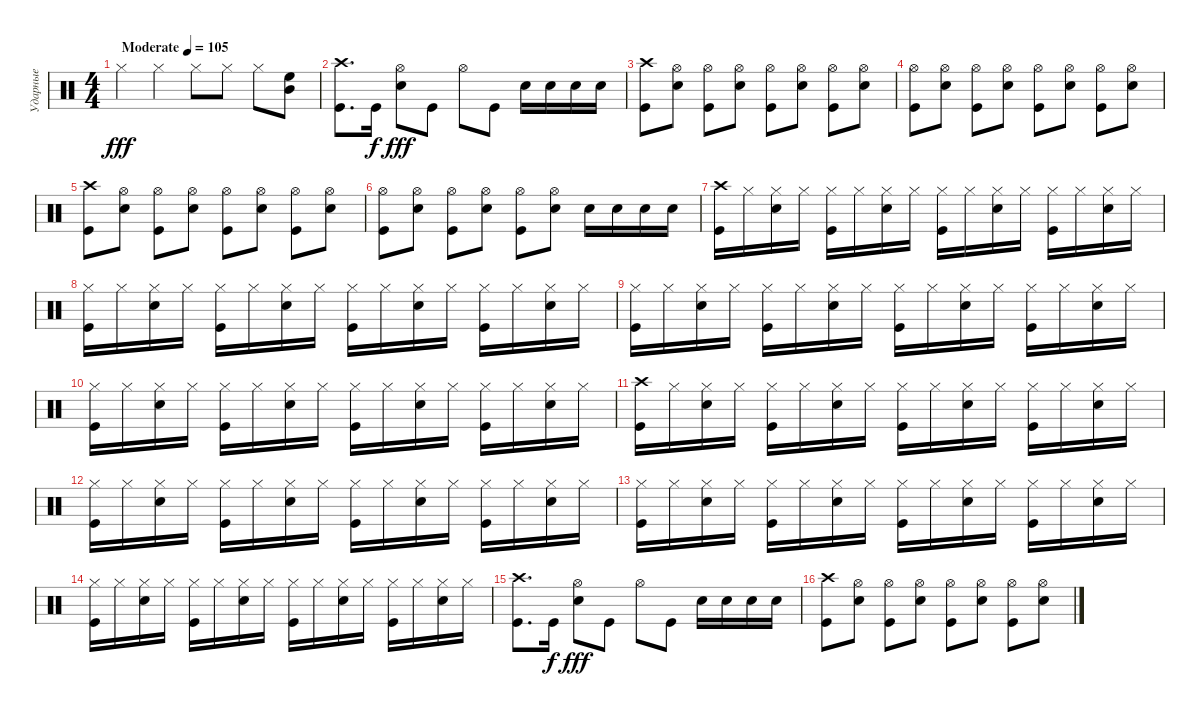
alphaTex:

\track ("Ударные" "Ударные") {instrument percussion}
\staff {score}
\articulation defaults
\ts (4 4)
\tempo (105 "Moderate")
\clef neutral
\ks c "Hi-Hat (closed)".4{dy fff} "Hi-Hat (closed)".4 "Hi-Hat (closed)".8 "Hi-Hat (closed)".8 "Hi-Hat (closed)".8
("High Floor Tom (hit)" "Mid Tom (hit)").8 |
("Crash high (hit)" "Kick (hit)").8{d} "Kick (hit)".16{dy f} ("Hi-Hat (open)" "Electric Snare (hit)").8{dy fff} "Kick (hit)".8 "Hi-Hat (open)".8 "Kick (hit)".8 "Electric Snare (hit)".16 "Electric Snare (hit)".16 "Electric Snare (hit)".16 "Electric Snare (hit)".16 |
("Crash high (hit)" "Kick (hit)").8 ("Electric Snare (hit)" "Hi-Hat (open)").8 ("Hi-Hat (open)" "Kick (hit)").8 ("Hi-Hat (open)" "Electric Snare (hit)").8 ("Kick (hit)" "Hi-Hat (open)").8 ("Electric Snare (hit)" "Hi-Hat (open)").8 ("Kick (hit)" "Hi-Hat (open)").8 ("Electric Snare (hit)" "Hi-Hat (open)").8 |
("Hi-Hat (open)" "Kick (hit)").8 ("Electric Snare (hit)" "Hi-Hat (open)").8 ("Hi-Hat (open)" "Kick (hit)").8 ("Hi-Hat (open)" "Electric Snare (hit)").8 ("Kick (hit)" "Hi-Hat (open)").8 ("Electric Snare (hit)" "Hi-Hat (open)").8 ("Kick (hit)" "Hi-Hat (open)").8 ("Electric Snare (hit)" "Hi-Hat (open)").8 |
("Crash high (hit)" "Kick (hit)").8 ("Electric Snare (hit)" "Hi-Hat (open)").8 ("Hi-Hat (open)" "Kick (hit)").8 ("Hi-Hat (open)" "Electric Snare (hit)").8 ("Kick (hit)" "Hi-Hat (open)").8 ("Electric Snare (hit)" "Hi-Hat (open)").8 ("Kick (hit)" "Hi-Hat (open)").8 ("Electric Snare (hit)" "Hi-Hat (open)").8 |
("Hi-Hat (open)" "Kick (hit)").8 ("Electric Snare (hit)" "Hi-Hat (open)").8 ("Hi-Hat (open)" "Kick (hit)").8 ("Hi-Hat (open)" "Electric Snare (hit)").8 ("Kick (hit)" "Hi-Hat (open)").8 ("Electric Snare (hit)" "Hi-Hat (open)").8 "Electric Snare (hit)".16 "Electric Snare (hit)".16 "Electric Snare (hit)".16 "Electric Snare (hit)".16 |
("Kick (hit)" "Crash high (hit)").16 "Hi-Hat (closed)".16 ("Hi-Hat (closed)" "Electric Snare (hit)").16 "Hi-Hat (closed)".16 ("Hi-Hat (closed)" "Kick (hit)").16 "Hi-Hat (closed)".16 ("Hi-Hat (closed)" "Electric Snare (hit)").16 "Hi-Hat (closed)".16 ("Hi-Hat (closed)" "Kick (hit)").16 "Hi-Hat (closed)".16 ("Hi-Hat (closed)" "Electric Snare (hit)").16 "Hi-Hat (closed)".16 ("Hi-Hat (closed)" "Kick (hit)").16 "Hi-Hat (closed)".16 ("Hi-Hat (closed)" "Electric Snare (hit)").16 "Hi-Hat (closed)".16 |
("Kick (hit)" "Hi-Hat (closed)").16 "Hi-Hat (closed)".16 ("Hi-Hat (closed)" "Electric Snare (hit)").16 "Hi-Hat (closed)".16 ("Hi-Hat (closed)" "Kick (hit)").16 "Hi-Hat (closed)".16 ("Hi-Hat (closed)" "Electric Snare (hit)").16 "Hi-Hat (closed)".16 ("Hi-Hat (closed)" "Kick (hit)").16 "Hi-Hat (closed)".16 ("Hi-Hat (closed)" "Electric Snare (hit)").16 "Hi-Hat (closed)".16 ("Hi-Hat (closed)" "Kick (hit)").16 "Hi-Hat (closed)".16 ("Hi-Hat (closed)" "Electric Snare (hit)").16 "Hi-Hat (closed)".16 |
("Kick (hit)" "Hi-Hat (closed)").16 "Hi-Hat (closed)".16 ("Hi-Hat (closed)" "Electric Snare (hit)").16 "Hi-Hat (closed)".16 ("Hi-Hat (closed)" "Kick (hit)").16 "Hi-Hat (closed)".16 ("Hi-Hat (closed)" "Electric Snare (hit)").16 "Hi-Hat (closed)".16 ("Hi-Hat (closed)" "Kick (hit)").16 "Hi-Hat (closed)".16 ("Hi-Hat (closed)" "Electric Snare (hit)").16 "Hi-Hat (closed)".16 ("Hi-Hat (closed)" "Kick (hit)").16 "Hi-Hat (closed)".16 ("Hi-Hat (closed)" "Electric Snare (hit)").16 "Hi-Hat (closed)".16 |
("Kick (hit)" "Hi-Hat (closed)").16 "Hi-Hat (closed)".16 ("Hi-Hat (closed)" "Electric Snare (hit)").16 "Hi-Hat (closed)".16 ("Hi-Hat (closed)" "Kick (hit)").16 "Hi-Hat (closed)".16 ("Hi-Hat (closed)" "Electric Snare (hit)").16 "Hi-Hat (closed)".16 ("Hi-Hat (closed)" "Kick (hit)").16 "Hi-Hat (closed)".16 ("Hi-Hat (closed)" "Electric Snare (hit)").16 "Hi-Hat (closed)".16 ("Hi-Hat (closed)" "Kick (hit)").16 "Hi-Hat (closed)".16 ("Hi-Hat (closed)" "Electric Snare (hit)").16 "Hi-Hat (closed)".16 |
("Kick (hit)" "Crash high (hit)").16 "Hi-Hat (closed)".16 ("Hi-Hat (closed)" "Electric Snare (hit)").16 "Hi-Hat (closed)".16 ("Hi-Hat (closed)" "Kick (hit)").16 "Hi-Hat (closed)".16 ("Hi-Hat (closed)" "Electric Snare (hit)").16 "Hi-Hat (closed)".16 ("Hi-Hat (closed)" "Kick (hit)").16 "Hi-Hat (closed)".16 ("Hi-Hat (closed)" "Electric Snare (hit)").16 "Hi-Hat (closed)".16 ("Hi-Hat (closed)" "Kick (hit)").16 "Hi-Hat (closed)".16 ("Hi-Hat (closed)" "Electric Snare (hit)").16 "Hi-Hat (closed)".16 |
("Kick (hit)" "Hi-Hat (closed)").16 "Hi-Hat (closed)".16 ("Hi-Hat (closed)" "Electric Snare (hit)").16 "Hi-Hat (closed)".16 ("Hi-Hat (closed)" "Kick (hit)").16 "Hi-Hat (closed)".16 ("Hi-Hat (closed)" "Electric Snare (hit)").16 "Hi-Hat (closed)".16 ("Hi-Hat (closed)" "Kick (hit)").16 "Hi-Hat (closed)".16 ("Hi-Hat (closed)" "Electric Snare (hit)").16 "Hi-Hat (closed)".16 ("Hi-Hat (closed)" "Kick (hit)").16 "Hi-Hat (closed)".16 ("Hi-Hat (closed)" "Electric Snare (hit)").16 "Hi-Hat (closed)".16 |
("Kick (hit)" "Hi-Hat (closed)").16 "Hi-Hat (closed)".16 ("Hi-Hat (closed)" "Electric Snare (hit)").16 "Hi-Hat (closed)".16 ("Hi-Hat (closed)" "Kick (hit)").16 "Hi-Hat (closed)".16 ("Hi-Hat (closed)" "Electric Snare (hit)").16 "Hi-Hat (closed)".16 ("Hi-Hat (closed)" "Kick (hit)").16 "Hi-Hat (closed)".16 ("Hi-Hat (closed)" "Electric Snare (hit)").16 "Hi-Hat (closed)".16 ("Hi-Hat (closed)" "Kick (hit)").16 "Hi-Hat (closed)".16 ("Hi-Hat (closed)" "Electric Snare (hit)").16 "Hi-Hat (closed)".16 |
("Kick (hit)" "Hi-Hat (closed)").16 "Hi-Hat (closed)".16 ("Hi-Hat (closed)" "Electric Snare (hit)").16 "Hi-Hat (closed)".16 ("Hi-Hat (closed)" "Kick (hit)").16 "Hi-Hat (closed)".16 ("Hi-Hat (closed)" "Electric Snare (hit)").16 "Hi-Hat (closed)".16 ("Hi-Hat (closed)" "Kick (hit)").16 "Hi-Hat (closed)".16 ("Hi-Hat (closed)" "Electric Snare (hit)").16 "Hi-Hat (closed)".16 ("Hi-Hat (closed)" "Kick (hit)").16 "Hi-Hat (closed)".16 ("Hi-Hat (closed)" "Electric Snare (hit)").16 "Hi-Hat (closed)".16 |
("Crash high (hit)" "Kick (hit)").8{d} "Kick (hit)".16{dy f} ("Hi-Hat (open)" "Electric Snare (hit)").8{dy fff} "Kick (hit)".8 "Hi-Hat (open)".8 "Kick (hit)".8 "Electric Snare (hit)".16 "Electric Snare (hit)".16 "Electric Snare (hit)".16 "Electric Snare (hit)".16 |
("Crash high (hit)" "Kick (hit)").8 ("Electric Snare (hit)" "Hi-Hat (open)").8 ("Hi-Hat (open)" "Kick (hit)").8 ("Hi-Hat (open)" "Electric Snare (hit)").8 ("Kick (hit)" "Hi-Hat (open)").8 ("Electric Snare (hit)" "Hi-Hat (open)").8 ("Kick (hit)" "Hi-Hat (open)").8 ("Electric Snare (hit)" "Hi-Hat (open)").8
